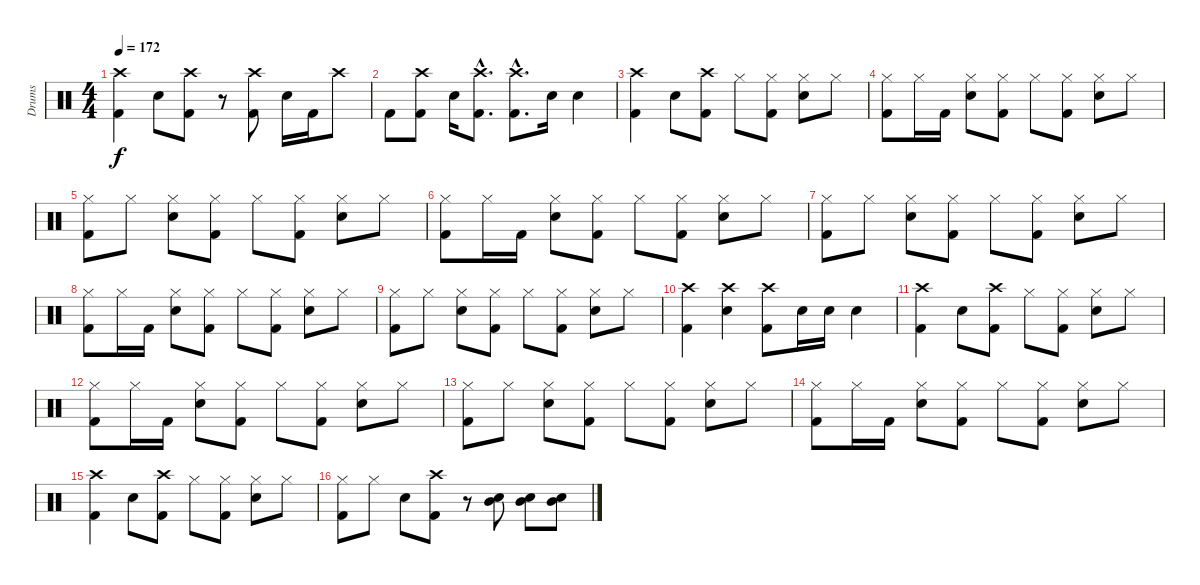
\track ("Drums" "Drums") {instrument percussion}
\staff {score}
\articulation defaults
\ts (4 4)
\tempo 172
\clef neutral
\ks c
("Crash high (hit)" "Kick (hit) 2").4{dy f} "Electric Snare (hit)".8 ("Crash high (hit)" "Kick (hit) 2").8 r.8 ("Crash high (hit)" "Kick (hit) 2").8 "Electric Snare (hit)".16 "Kick (hit) 2".16 "Crash high (hit)".8 |
"Kick (hit) 2".8 ("Crash high (hit)" "Kick (hit) 2").8 "Electric Snare (hit)".16 ("Crash high (hit)"{hac} "Kick (hit) 2"{hac}).8{d} ("Crash high (hit)"{hac} "Kick (hit) 2"{hac}).8{d} "Electric Snare (hit)".16 "Electric Snare (hit)".4 |
("Crash high (hit)" "Kick (hit) 2").4 "Electric Snare (hit)".8 ("Crash high (hit)" "Kick (hit) 2").8 "Hi-Hat (closed)".8 ("Hi-Hat (closed)" "Kick (hit) 2").8 ("Hi-Hat (closed)" "Electric Snare (hit)").8 "Hi-Hat (closed)".8 |
("Hi-Hat (closed)" "Kick (hit) 2").8 "Hi-Hat (closed)".16 "Kick (hit) 2".16 ("Hi-Hat (closed)" "Electric Snare (hit)").8 ("Hi-Hat (closed)" "Kick (hit) 2").8 "Hi-Hat (closed)".8 ("Hi-Hat (closed)" "Kick (hit) 2").8 ("Hi-Hat (closed)" "Electric Snare (hit)").8 "Hi-Hat (closed)".8 |
("Hi-Hat (closed)" "Kick (hit) 2").8 "Hi-Hat (closed)".8 ("Hi-Hat (closed)" "Electric Snare (hit)").8 ("Hi-Hat (closed)" "Kick (hit) 2").8 "Hi-Hat (closed)".8 ("Hi-Hat (closed)" "Kick (hit) 2").8 ("Hi-Hat (closed)" "Electric Snare (hit)").8 "Hi-Hat (closed)".8 |
("Hi-Hat (closed)" "Kick (hit) 2").8 "Hi-Hat (closed)".16 "Kick (hit) 2".16 ("Hi-Hat (closed)" "Electric Snare (hit)").8 ("Hi-Hat (closed)" "Kick (hit) 2").8 "Hi-Hat (closed)".8 ("Hi-Hat (closed)" "Kick (hit) 2").8 ("Hi-Hat (closed)" "Electric Snare (hit)").8 "Hi-Hat (closed)".8 |
("Hi-Hat (closed)" "Kick (hit) 2").8 "Hi-Hat (closed)".8 ("Hi-Hat (closed)" "Electric Snare (hit)").8 ("Hi-Hat (closed)" "Kick (hit) 2").8 "Hi-Hat (closed)".8 ("Hi-Hat (closed)" "Kick (hit) 2").8 ("Hi-Hat (closed)" "Electric Snare (hit)").8 "Hi-Hat (closed)".8 |
("Hi-Hat (closed)" "Kick (hit) 2").8 "Hi-Hat (closed)".16 "Kick (hit) 2".16 ("Hi-Hat (closed)" "Electric Snare (hit)").8 ("Hi-Hat (closed)" "Kick (hit) 2").8 "Hi-Hat (closed)".8 ("Hi-Hat (closed)" "Kick (hit) 2").8 ("Hi-Hat (closed)" "Electric Snare (hit)").8 "Hi-Hat (closed)".8 |
("Hi-Hat (closed)" "Kick (hit) 2").8 "Hi-Hat (closed)".8 ("Hi-Hat (closed)" "Electric Snare (hit)").8 ("Hi-Hat (closed)" "Kick (hit) 2").8 "Hi-Hat (closed)".8 ("Hi-Hat (closed)" "Kick (hit) 2").8 ("Hi-Hat (closed)" "Electric Snare (hit)").8 "Hi-Hat (closed)".8 |
("Crash high (hit)" "Kick (hit) 2").4 ("Crash high (hit)" "Electric Snare (hit)").4 ("Crash high (hit)" "Kick (hit) 2").8 "Electric Snare (hit)".16 "Electric Snare (hit)".16 "Electric Snare (hit)".4 |
("Crash high (hit)" "Kick (hit) 2").4 "Electric Snare (hit)".8 ("Crash high (hit)" "Kick (hit) 2").8 "Hi-Hat (closed)".8 ("Hi-Hat (closed)" "Kick (hit) 2").8 ("Hi-Hat (closed)" "Electric Snare (hit)").8 "Hi-Hat (closed)".8 |
("Hi-Hat (closed)" "Kick (hit) 2").8 "Hi-Hat (closed)".16 "Kick (hit) 2".16 ("Hi-Hat (closed)" "Electric Snare (hit)").8 ("Hi-Hat (closed)" "Kick (hit) 2").8 "Hi-Hat (closed)".8 ("Hi-Hat (closed)" "Kick (hit) 2").8 ("Hi-Hat (closed)" "Electric Snare (hit)").8 "Hi-Hat (closed)".8 |
("Hi-Hat (closed)" "Kick (hit) 2").8 "Hi-Hat (closed)".8 ("Hi-Hat (closed)" "Electric Snare (hit)").8 ("Hi-Hat (closed)" "Kick (hit) 2").8 "Hi-Hat (closed)".8 ("Hi-Hat (closed)" "Kick (hit) 2").8 ("Hi-Hat (closed)" "Electric Snare (hit)").8 "Hi-Hat (closed)".8 |
("Hi-Hat (closed)" "Kick (hit) 2").8 "Hi-Hat (closed)".16 "Kick (hit) 2".16 ("Hi-Hat (closed)" "Electric Snare (hit)").8 ("Hi-Hat (closed)" "Kick (hit) 2").8 "Hi-Hat (closed)".8 ("Hi-Hat (closed)" "Kick (hit) 2").8 ("Hi-Hat (closed)" "Electric Snare (hit)").8 "Hi-Hat (closed)".8 |
("Crash high (hit)" "Kick (hit) 2").4 "Electric Snare (hit)".8 ("Crash high (hit)" "Kick (hit) 2").8 "Hi-Hat (closed)".8 ("Hi-Hat (closed)" "Kick (hit) 2").8 ("Hi-Hat (closed)" "Electric Snare (hit)").8 "Hi-Hat (closed)".8 |
("Hi-Hat (closed)" "Kick (hit) 2").8 "Hi-Hat (closed)".8 "Electric Snare (hit)".8 ("Crash high (hit)" "Kick (hit) 2").8 r.8 ("Mid Tom (hit)" "Electric Snare (hit)").8 ("Mid Tom (hit)" "Electric Snare (hit)").8 ("Mid Tom (hit)" "Electric Snare (hit)").8
